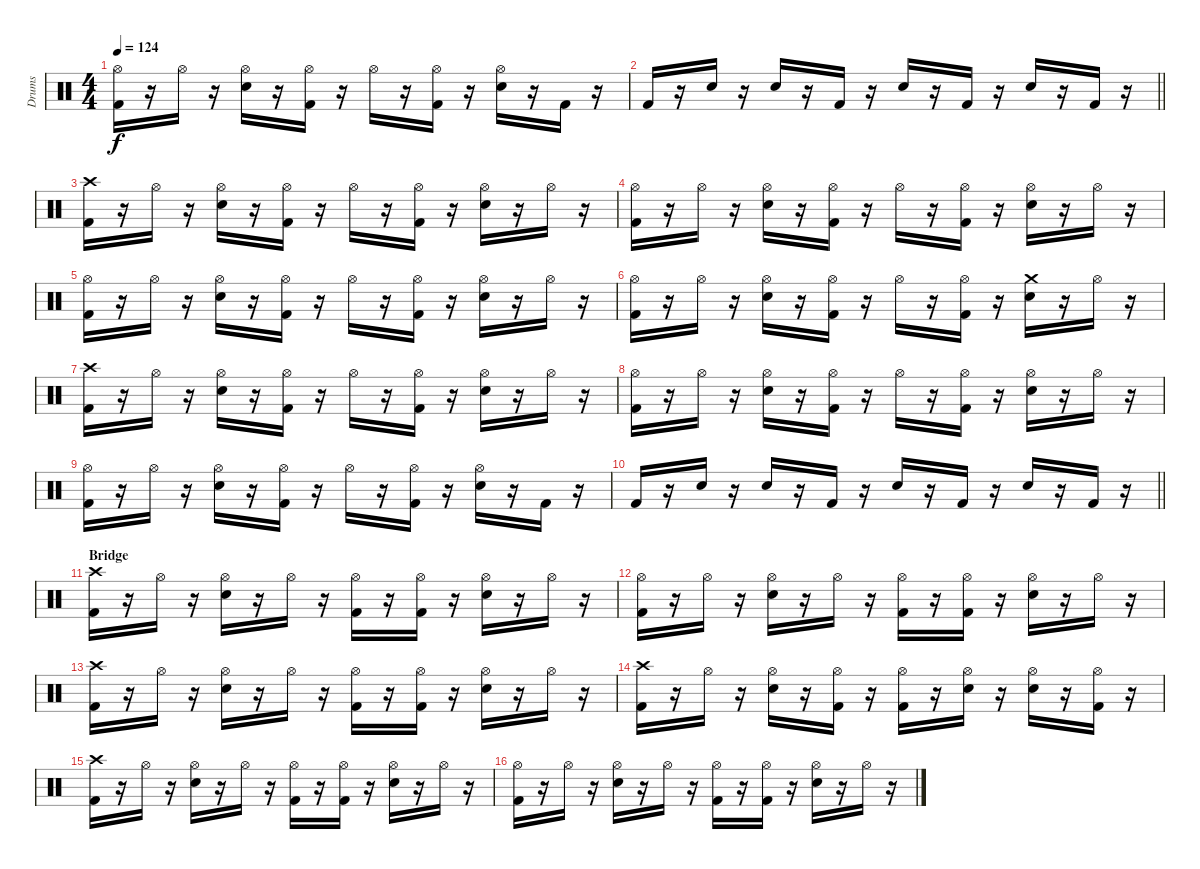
\track ("Drums" "Drums") {instrument percussion}
\staff {score}
\articulation defaults
\ts (4 4)
\tempo 124
\clef neutral
\ks c
("Hi-Hat (open)" "Kick (hit) 2").16{dy f} r.16 "Hi-Hat (open)".16 r.16 ("Hi-Hat (open)" "Snare (hit) 2").16 r.16 ("Hi-Hat (open)" "Kick (hit) 2").16 r.16 "Hi-Hat (open)".16 r.16 ("Hi-Hat (open)" "Kick (hit) 2").16 r.16 ("Hi-Hat (open)" "Snare (hit) 2").16 r.16 "Kick (hit) 2".16 r.16 |
\barLineRight lightlight "Kick (hit) 2".16
r.16 "Snare (hit) 2".16 r.16 "Snare (hit) 2".16 r.16 "Kick (hit) 2".16 r.16 "Snare (hit) 2".16 r.16 "Kick (hit) 2".16 r.16 "Snare (hit) 2".16 r.16 "Kick (hit) 2".16 r.16 |
("Crash high (hit)" "Kick (hit) 2").16 r.16 "Hi-Hat (open)".16 r.16 ("Hi-Hat (open)" "Snare (hit) 2").16 r.16 ("Hi-Hat (open)" "Kick (hit) 2").16 r.16 "Hi-Hat (open)".16 r.16 ("Hi-Hat (open)" "Kick (hit) 2").16 r.16 ("Hi-Hat (open)" "Snare (hit) 2").16 r.16 "Hi-Hat (open)".16 r.16 |
("Hi-Hat (open)" "Kick (hit) 2").16 r.16 "Hi-Hat (open)".16 r.16 ("Hi-Hat (open)" "Snare (hit) 2").16 r.16 ("Hi-Hat (open)" "Kick (hit) 2").16 r.16 "Hi-Hat (open)".16 r.16 ("Hi-Hat (open)" "Kick (hit) 2").16 r.16 ("Hi-Hat (open)" "Snare (hit) 2").16 r.16 "Hi-Hat (open)".16 r.16 |
("Hi-Hat (open)" "Kick (hit) 2").16 r.16 "Hi-Hat (open)".16 r.16 ("Hi-Hat (open)" "Snare (hit) 2").16 r.16 ("Hi-Hat (open)" "Kick (hit) 2").16 r.16 "Hi-Hat (open)".16 r.16 ("Hi-Hat (open)" "Kick (hit) 2").16 r.16 ("Hi-Hat (open)" "Snare (hit) 2").16 r.16 "Hi-Hat (open)".16 r.16 |
("Hi-Hat (open)" "Kick (hit) 2").16 r.16 "Hi-Hat (open)".16 r.16 ("Hi-Hat (open)" "Snare (hit) 2").16 r.16 ("Hi-Hat (open)" "Kick (hit) 2").16 r.16 "Hi-Hat (open)".16 r.16 ("Hi-Hat (open)" "Kick (hit) 2").16 r.16 ("Crash medium (hit)" "Snare (hit) 2").16 r.16 "Hi-Hat (open)".16 r.16 |
("Crash high (hit)" "Kick (hit) 2").16 r.16 "Hi-Hat (open)".16 r.16 ("Hi-Hat (open)" "Snare (hit) 2").16 r.16 ("Hi-Hat (open)" "Kick (hit) 2").16 r.16 "Hi-Hat (open)".16 r.16 ("Hi-Hat (open)" "Kick (hit) 2").16 r.16 ("Hi-Hat (open)" "Snare (hit) 2").16 r.16 "Hi-Hat (open)".16 r.16 |
("Hi-Hat (open)" "Kick (hit) 2").16 r.16 "Hi-Hat (open)".16 r.16 ("Hi-Hat (open)" "Snare (hit) 2").16 r.16 ("Hi-Hat (open)" "Kick (hit) 2").16 r.16 "Hi-Hat (open)".16 r.16 ("Hi-Hat (open)" "Kick (hit) 2").16 r.16 ("Hi-Hat (open)" "Snare (hit) 2").16 r.16 "Hi-Hat (open)".16 r.16 |
("Hi-Hat (open)" "Kick (hit) 2").16 r.16 "Hi-Hat (open)".16 r.16 ("Hi-Hat (open)" "Snare (hit) 2").16 r.16 ("Hi-Hat (open)" "Kick (hit) 2").16 r.16 "Hi-Hat (open)".16 r.16 ("Hi-Hat (open)" "Kick (hit) 2").16 r.16 ("Hi-Hat (open)" "Snare (hit) 2").16 r.16 "Kick (hit) 2".16 r.16 |
\barLineRight lightlight "Kick (hit) 2".16
r.16 "Snare (hit) 2".16 r.16 "Snare (hit) 2".16 r.16 "Kick (hit) 2".16 r.16 "Snare (hit) 2".16 r.16 "Kick (hit) 2".16 r.16 "Snare (hit) 2".16 r.16 "Kick (hit) 2".16 r.16 |
\section ("" "Bridge")
("Kick (hit) 2" "Crash high (hit)").16 r.16 "Hi-Hat (open)".16 r.16 ("Snare (hit) 2" "Hi-Hat (open)").16 r.16 "Hi-Hat (open)".16 r.16 ("Kick (hit) 2" "Hi-Hat (open)").16 r.16 ("Kick (hit) 2" "Hi-Hat (open)").16 r.16 ("Snare (hit) 2" "Hi-Hat (open)").16 r.16 "Hi-Hat (open)".16 r.16 |
("Kick (hit) 2" "Hi-Hat (open)").16 r.16 "Hi-Hat (open)".16 r.16 ("Snare (hit) 2" "Hi-Hat (open)").16 r.16 "Hi-Hat (open)".16 r.16 ("Kick (hit) 2" "Hi-Hat (open)").16 r.16 ("Kick (hit) 2" "Hi-Hat (open)").16 r.16 ("Snare (hit) 2" "Hi-Hat (open)").16 r.16 "Hi-Hat (open)".16 r.16 |
("Kick (hit) 2" "Crash high (hit)").16 r.16 "Hi-Hat (open)".16 r.16 ("Snare (hit) 2" "Hi-Hat (open)").16 r.16 "Hi-Hat (open)".16 r.16 ("Kick (hit) 2" "Hi-Hat (open)").16 r.16 ("Kick (hit) 2" "Hi-Hat (open)").16 r.16 ("Snare (hit) 2" "Hi-Hat (open)").16 r.16 "Hi-Hat (open)".16 r.16 |
("Kick (hit) 2" "Crash high (hit)").16 r.16 "Hi-Hat (open)".16 r.16 ("Snare (hit) 2" "Hi-Hat (open)").16 r.16 ("Kick (hit) 2" "Hi-Hat (open)").16 r.16 ("Kick (hit) 2" "Hi-Hat (open)").16 r.16 ("Snare (hit) 2" "Hi-Hat (open)").16 r.16 ("Snare (hit) 2" "Hi-Hat (open)").16 r.16 ("Kick (hit) 2" "Hi-Hat (open)").16 r.16 |
("Kick (hit) 2" "Crash high (hit)").16 r.16 "Hi-Hat (open)".16 r.16 ("Snare (hit) 2" "Hi-Hat (open)").16 r.16 "Hi-Hat (open)".16 r.16 ("Kick (hit) 2" "Hi-Hat (open)").16 r.16 ("Kick (hit) 2" "Hi-Hat (open)").16 r.16 ("Snare (hit) 2" "Hi-Hat (open)").16 r.16 "Hi-Hat (open)".16 r.16 |
("Kick (hit) 2" "Hi-Hat (open)").16 r.16 "Hi-Hat (open)".16 r.16 ("Snare (hit) 2" "Hi-Hat (open)").16 r.16 "Hi-Hat (open)".16 r.16 ("Kick (hit) 2" "Hi-Hat (open)").16 r.16 ("Kick (hit) 2" "Hi-Hat (open)").16 r.16 ("Snare (hit) 2" "Hi-Hat (open)").16 r.16 "Hi-Hat (open)".16 r.16
